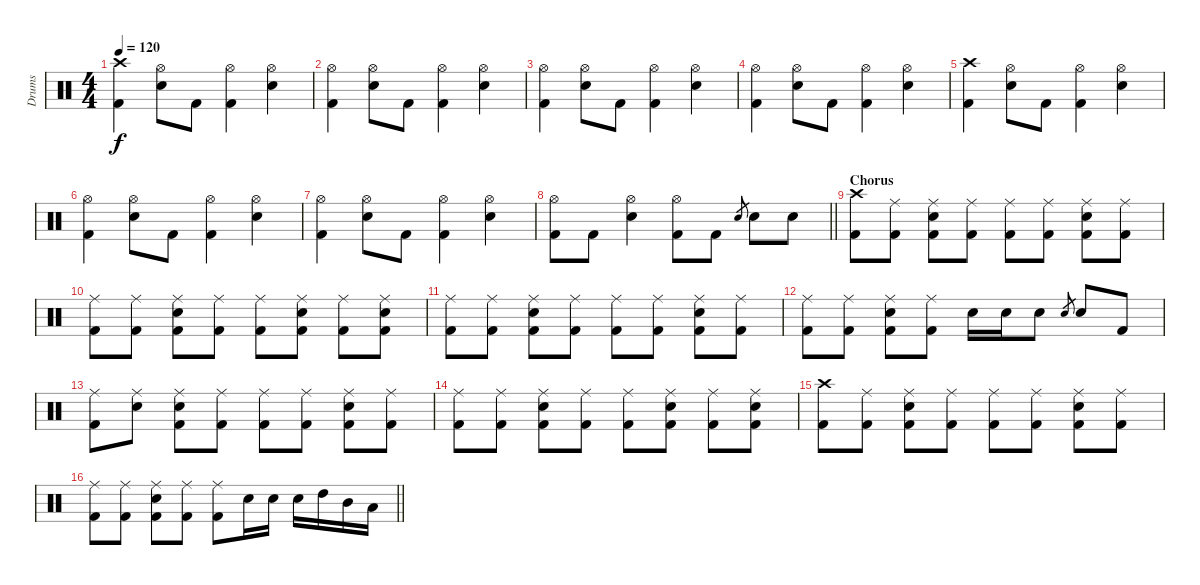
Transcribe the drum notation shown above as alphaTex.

\track ("Drums" "Drums") {instrument percussion}
\staff {score}
\articulation defaults
\ts (4 4)
\tempo 120
\clef neutral
\ks c
("Crash high (hit)" "Kick (hit) 2").4{dy f} ("Hi-Hat (open)" "Snare (hit) 2").8 "Kick (hit) 2".8 ("Hi-Hat (open)" "Kick (hit) 2").4 ("Hi-Hat (open)" "Snare (hit) 2").4 |
("Hi-Hat (open)" "Kick (hit) 2").4 ("Hi-Hat (open)" "Snare (hit) 2").8 "Kick (hit) 2".8 ("Hi-Hat (open)" "Kick (hit) 2").4 ("Hi-Hat (open)" "Snare (hit) 2").4 |
("Hi-Hat (open)" "Kick (hit) 2").4 ("Hi-Hat (open)" "Snare (hit) 2").8 "Kick (hit) 2".8 ("Hi-Hat (open)" "Kick (hit) 2").4 ("Hi-Hat (open)" "Snare (hit) 2").4 |
("Hi-Hat (open)" "Kick (hit) 2").4 ("Hi-Hat (open)" "Snare (hit) 2").8 "Kick (hit) 2".8 ("Hi-Hat (open)" "Kick (hit) 2").4 ("Hi-Hat (open)" "Snare (hit) 2").4 |
("Crash high (hit)" "Kick (hit) 2").4 ("Hi-Hat (open)" "Snare (hit) 2").8 "Kick (hit) 2".8 ("Hi-Hat (open)" "Kick (hit) 2").4 ("Hi-Hat (open)" "Snare (hit) 2").4 |
("Hi-Hat (open)" "Kick (hit) 2").4 ("Hi-Hat (open)" "Snare (hit) 2").8 "Kick (hit) 2".8 ("Hi-Hat (open)" "Kick (hit) 2").4 ("Hi-Hat (open)" "Snare (hit) 2").4 |
("Hi-Hat (open)" "Kick (hit) 2").4 ("Hi-Hat (open)" "Snare (hit) 2").8 "Kick (hit) 2".8 ("Hi-Hat (open)" "Kick (hit) 2").4 ("Hi-Hat (open)" "Snare (hit) 2").4 |
\barLineRight lightlight
("Hi-Hat (open)" "Kick (hit) 2").8 "Kick (hit) 2".8 ("Hi-Hat (open)" "Snare (hit) 2").4 ("Hi-Hat (open)" "Kick (hit) 2").8 "Kick (hit) 2".8 "Snare (hit) 2".8{gr} "Snare (hit) 2".8 "Snare (hit) 2".8 |
\section ("" "Chorus")
("Crash high (hit)" "Kick (hit) 2").8 ("Ride (middle)" "Kick (hit) 2").8 ("Ride (middle)" "Snare (hit) 2" "Kick (hit) 2").8 ("Ride (middle)" "Kick (hit) 2").8 ("Ride (middle)" "Kick (hit) 2").8 ("Ride (middle)" "Kick (hit) 2").8 ("Ride (middle)" "Snare (hit) 2" "Kick (hit) 2").8 ("Ride (middle)" "Kick (hit) 2").8 |
("Ride (middle)" "Kick (hit) 2").8 ("Ride (middle)" "Kick (hit) 2").8 ("Ride (middle)" "Snare (hit) 2" "Kick (hit) 2").8 ("Ride (middle)" "Kick (hit) 2").8 ("Ride (middle)" "Kick (hit) 2").8 ("Ride (middle)" "Snare (hit) 2" "Kick (hit) 2").8 ("Ride (middle)" "Kick (hit) 2").8 ("Ride (middle)" "Snare (hit) 2" "Kick (hit) 2").8 |
("Ride (middle)" "Kick (hit) 2").8 ("Ride (middle)" "Kick (hit) 2").8 ("Ride (middle)" "Snare (hit) 2" "Kick (hit) 2").8 ("Ride (middle)" "Kick (hit) 2").8 ("Ride (middle)" "Kick (hit) 2").8 ("Ride (middle)" "Kick (hit) 2").8 ("Ride (middle)" "Snare (hit) 2" "Kick (hit) 2").8 ("Ride (middle)" "Kick (hit) 2").8 |
("Ride (middle)" "Kick (hit) 2").8 ("Ride (middle)" "Kick (hit) 2").8 ("Ride (middle)" "Snare (hit) 2" "Kick (hit) 2").8 ("Ride (middle)" "Kick (hit) 2").8 "Snare (hit) 2".16 "Snare (hit) 2".16 "Snare (hit) 2".8 "Snare (hit) 2".8{gr} "Snare (hit) 2".8 "Kick (hit) 2".8 |
("Ride (middle)" "Kick (hit) 2").8 ("Ride (middle)" "Snare (hit) 2").8 ("Ride (middle)" "Snare (hit) 2" "Kick (hit) 2").8 ("Ride (middle)" "Kick (hit) 2").8 ("Ride (middle)" "Kick (hit) 2").8 ("Ride (middle)" "Kick (hit) 2").8 ("Ride (middle)" "Snare (hit) 2" "Kick (hit) 2").8 ("Ride (middle)" "Kick (hit) 2").8 |
("Ride (middle)" "Kick (hit) 2").8 ("Ride (middle)" "Kick (hit) 2").8 ("Ride (middle)" "Snare (hit) 2" "Kick (hit) 2").8 ("Ride (middle)" "Kick (hit) 2").8 ("Ride (middle)" "Kick (hit) 2").8 ("Ride (middle)" "Snare (hit) 2" "Kick (hit) 2").8 ("Ride (middle)" "Kick (hit) 2").8 ("Ride (middle)" "Snare (hit) 2" "Kick (hit) 2").8 |
("Crash high (hit)" "Kick (hit) 2").8 ("Ride (middle)" "Kick (hit) 2").8 ("Ride (middle)" "Snare (hit) 2" "Kick (hit) 2").8 ("Ride (middle)" "Kick (hit) 2").8 ("Ride (middle)" "Kick (hit) 2").8 ("Ride (middle)" "Kick (hit) 2").8 ("Ride (middle)" "Snare (hit) 2" "Kick (hit) 2").8 ("Ride (middle)" "Kick (hit) 2").8 |
\barLineRight lightlight
("Ride (middle)" "Kick (hit) 2").8 ("Ride (middle)" "Kick (hit) 2").8 ("Ride (middle)" "Snare (hit) 2" "Kick (hit) 2").8 ("Ride (middle)" "Kick (hit) 2").8 ("Ride (middle)" "Kick (hit) 2").8 "Snare (hit) 2".16 "Snare (hit) 2".16 "Snare (hit) 2".16 "High Tom (hit)".16 "Mid Tom (hit)".16 "Low Tom (hit)".16
